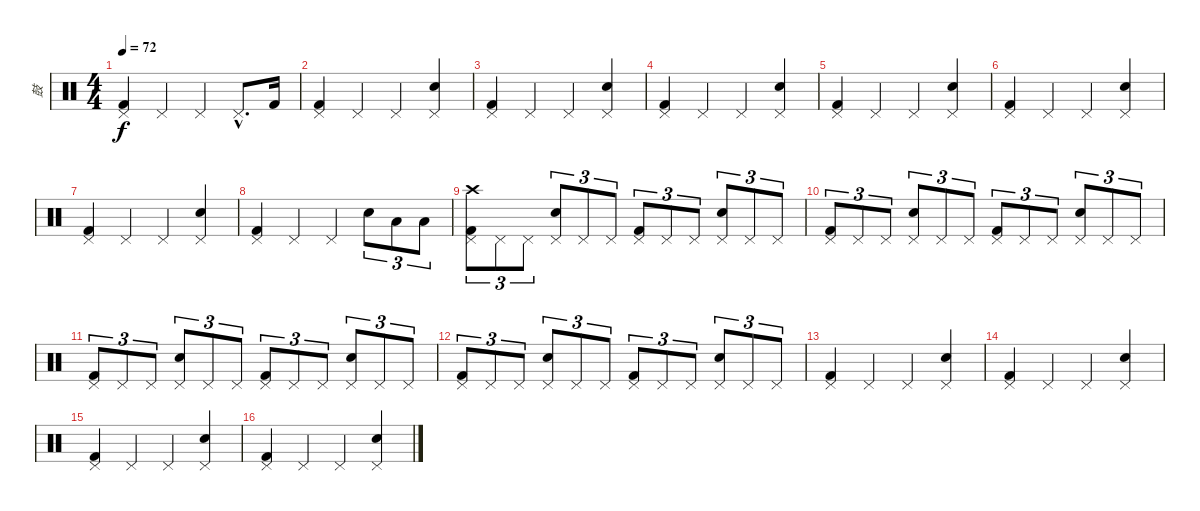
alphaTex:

\track ("鼓" "鼓") {instrument percussion}
\staff {score}
\articulation defaults
\ts (4 4)
\tempo 72
\clef neutral
\ks c
("Kick (hit) 2" "Pedal Hi-Hat (hit)").4{dy f} "Pedal Hi-Hat (hit)".4 "Pedal Hi-Hat (hit)".4 "Pedal Hi-Hat (hit)"{hac}.8{d} "Kick (hit) 2".16 |
("Pedal Hi-Hat (hit)" "Kick (hit) 2").4 "Pedal Hi-Hat (hit)".4 "Pedal Hi-Hat (hit)".4 ("Electric Snare (hit)" "Pedal Hi-Hat (hit)").4 |
("Pedal Hi-Hat (hit)" "Kick (hit) 2").4 "Pedal Hi-Hat (hit)".4 "Pedal Hi-Hat (hit)".4 ("Electric Snare (hit)" "Pedal Hi-Hat (hit)").4 |
("Pedal Hi-Hat (hit)" "Kick (hit) 2").4 "Pedal Hi-Hat (hit)".4 "Pedal Hi-Hat (hit)".4 ("Electric Snare (hit)" "Pedal Hi-Hat (hit)").4 |
("Pedal Hi-Hat (hit)" "Kick (hit) 2").4 "Pedal Hi-Hat (hit)".4 "Pedal Hi-Hat (hit)".4 ("Electric Snare (hit)" "Pedal Hi-Hat (hit)").4 |
("Pedal Hi-Hat (hit)" "Kick (hit) 2").4 "Pedal Hi-Hat (hit)".4 "Pedal Hi-Hat (hit)".4 ("Electric Snare (hit)" "Pedal Hi-Hat (hit)").4 |
("Pedal Hi-Hat (hit)" "Kick (hit) 2").4 "Pedal Hi-Hat (hit)".4 "Pedal Hi-Hat (hit)".4 ("Electric Snare (hit)" "Pedal Hi-Hat (hit)").4 |
("Pedal Hi-Hat (hit)" "Kick (hit) 2").4 "Pedal Hi-Hat (hit)".4 "Pedal Hi-Hat (hit)".4 "Electric Snare (hit)".8{tu (3 2)} "Low Tom (hit)".8{tu (3 2)} "Low Tom (hit)".8{tu (3 2)} |
("Pedal Hi-Hat (hit)" "Kick (hit) 2" "Crash high (hit)").8{tu (3 2)} "Pedal Hi-Hat (hit)".8{tu (3 2)} "Pedal Hi-Hat (hit)".8{tu (3 2)} ("Pedal Hi-Hat (hit)" "Electric Snare (hit)").8{tu (3 2)} "Pedal Hi-Hat (hit)".8{tu (3 2)} "Pedal Hi-Hat (hit)".8{tu (3 2)} ("Pedal Hi-Hat (hit)" "Kick (hit) 2").8{tu (3 2)} "Pedal Hi-Hat (hit)".8{tu (3 2)} "Pedal Hi-Hat (hit)".8{tu (3 2)} ("Pedal Hi-Hat (hit)" "Electric Snare (hit)").8{tu (3 2)} "Pedal Hi-Hat (hit)".8{tu (3 2)} "Pedal Hi-Hat (hit)".8{tu (3 2)} |
("Pedal Hi-Hat (hit)" "Kick (hit) 2").8{tu (3 2)} "Pedal Hi-Hat (hit)".8{tu (3 2)} "Pedal Hi-Hat (hit)".8{tu (3 2)} ("Pedal Hi-Hat (hit)" "Electric Snare (hit)").8{tu (3 2)} "Pedal Hi-Hat (hit)".8{tu (3 2)} "Pedal Hi-Hat (hit)".8{tu (3 2)} ("Pedal Hi-Hat (hit)" "Kick (hit) 2").8{tu (3 2)} "Pedal Hi-Hat (hit)".8{tu (3 2)} "Pedal Hi-Hat (hit)".8{tu (3 2)} ("Pedal Hi-Hat (hit)" "Electric Snare (hit)").8{tu (3 2)} "Pedal Hi-Hat (hit)".8{tu (3 2)} "Pedal Hi-Hat (hit)".8{tu (3 2)} |
("Pedal Hi-Hat (hit)" "Kick (hit) 2").8{tu (3 2)} "Pedal Hi-Hat (hit)".8{tu (3 2)} "Pedal Hi-Hat (hit)".8{tu (3 2)} ("Pedal Hi-Hat (hit)" "Electric Snare (hit)").8{tu (3 2)} "Pedal Hi-Hat (hit)".8{tu (3 2)} "Pedal Hi-Hat (hit)".8{tu (3 2)} ("Pedal Hi-Hat (hit)" "Kick (hit) 2").8{tu (3 2)} "Pedal Hi-Hat (hit)".8{tu (3 2)} "Pedal Hi-Hat (hit)".8{tu (3 2)} ("Pedal Hi-Hat (hit)" "Electric Snare (hit)").8{tu (3 2)} "Pedal Hi-Hat (hit)".8{tu (3 2)} "Pedal Hi-Hat (hit)".8{tu (3 2)} |
("Pedal Hi-Hat (hit)" "Kick (hit) 2").8{tu (3 2)} "Pedal Hi-Hat (hit)".8{tu (3 2)} "Pedal Hi-Hat (hit)".8{tu (3 2)} ("Pedal Hi-Hat (hit)" "Electric Snare (hit)").8{tu (3 2)} "Pedal Hi-Hat (hit)".8{tu (3 2)} "Pedal Hi-Hat (hit)".8{tu (3 2)} ("Pedal Hi-Hat (hit)" "Kick (hit) 2").8{tu (3 2)} "Pedal Hi-Hat (hit)".8{tu (3 2)} "Pedal Hi-Hat (hit)".8{tu (3 2)} ("Pedal Hi-Hat (hit)" "Electric Snare (hit)").8{tu (3 2)} "Pedal Hi-Hat (hit)".8{tu (3 2)} "Pedal Hi-Hat (hit)".8{tu (3 2)} |
("Pedal Hi-Hat (hit)" "Kick (hit) 2").4 "Pedal Hi-Hat (hit)".4 "Pedal Hi-Hat (hit)".4 ("Electric Snare (hit)" "Pedal Hi-Hat (hit)").4 |
("Pedal Hi-Hat (hit)" "Kick (hit) 2").4 "Pedal Hi-Hat (hit)".4 "Pedal Hi-Hat (hit)".4 ("Electric Snare (hit)" "Pedal Hi-Hat (hit)").4 |
("Pedal Hi-Hat (hit)" "Kick (hit) 2").4 "Pedal Hi-Hat (hit)".4 "Pedal Hi-Hat (hit)".4 ("Electric Snare (hit)" "Pedal Hi-Hat (hit)").4 |
("Pedal Hi-Hat (hit)" "Kick (hit) 2").4 "Pedal Hi-Hat (hit)".4 "Pedal Hi-Hat (hit)".4 ("Electric Snare (hit)" "Pedal Hi-Hat (hit)").4
